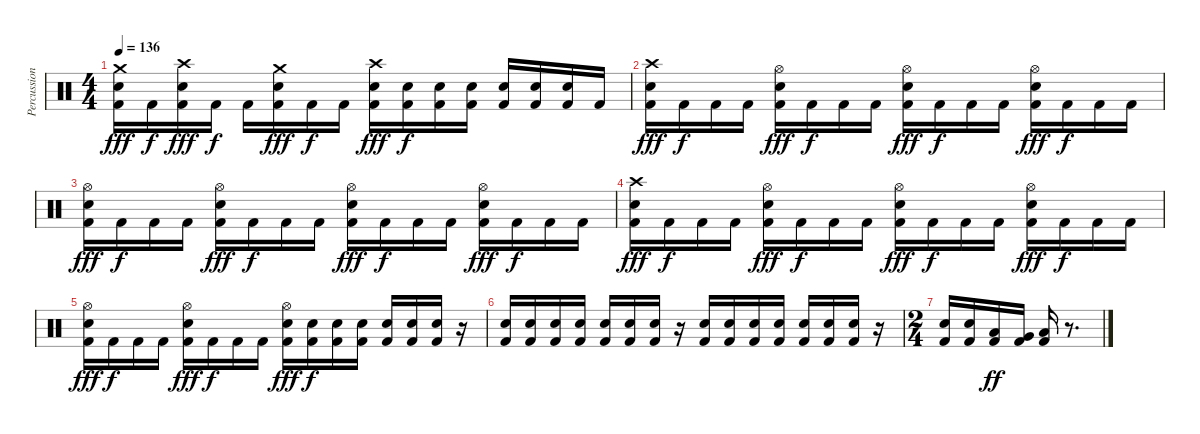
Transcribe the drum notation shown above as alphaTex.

\track ("Percussions" "Percussion") {instrument percussion}
\staff {score}
\articulation defaults
\ts (4 4)
\tempo 136
\clef neutral
\ks c
("Crash medium (hit)" "Electric Snare (hit)" "Kick (hit) 2").16{dy fff} "Kick (hit) 2".16{dy f} ("Crash high (hit)" "Electric Snare (hit)" "Kick (hit) 2").16{dy fff} "Kick (hit) 2".16{dy f} "Kick (hit) 2".16 ("Crash medium (hit)" "Electric Snare (hit)" "Kick (hit) 2").16{dy fff} "Kick (hit) 2".16{dy f} "Kick (hit) 2".16 ("Crash high (hit)" "Electric Snare (hit)" "Kick (hit) 2").16{dy fff} ("Electric Snare (hit)" "Kick (hit) 2").16{dy f} ("Electric Snare (hit)" "Kick (hit) 2").16 ("Electric Snare (hit)" "Kick (hit) 2").16 ("Electric Snare (hit)" "Kick (hit) 2").16 ("Electric Snare (hit)" "Kick (hit) 2").16 ("Electric Snare (hit)" "Kick (hit) 2").16 "Kick (hit) 2".16 |
("Crash high (hit)" "Electric Snare (hit)" "Kick (hit) 2").16{dy fff} "Kick (hit) 2".16{dy f} "Kick (hit) 2".16 "Kick (hit) 2".16 ("Hi-Hat (open)" "Electric Snare (hit)" "Kick (hit) 2").16{dy fff} "Kick (hit) 2".16{dy f} "Kick (hit) 2".16 "Kick (hit) 2".16 ("Hi-Hat (open)" "Electric Snare (hit)" "Kick (hit) 2").16{dy fff} "Kick (hit) 2".16{dy f} "Kick (hit) 2".16 "Kick (hit) 2".16 ("Hi-Hat (open)" "Electric Snare (hit)" "Kick (hit) 2").16{dy fff} "Kick (hit) 2".16{dy f} "Kick (hit) 2".16 "Kick (hit) 2".16 |
("Hi-Hat (open)" "Electric Snare (hit)" "Kick (hit) 2").16{dy fff} "Kick (hit) 2".16{dy f} "Kick (hit) 2".16 "Kick (hit) 2".16 ("Hi-Hat (open)" "Electric Snare (hit)" "Kick (hit) 2").16{dy fff} "Kick (hit) 2".16{dy f} "Kick (hit) 2".16 "Kick (hit) 2".16 ("Hi-Hat (open)" "Electric Snare (hit)" "Kick (hit) 2").16{dy fff} "Kick (hit) 2".16{dy f} "Kick (hit) 2".16 "Kick (hit) 2".16 ("Hi-Hat (open)" "Electric Snare (hit)" "Kick (hit) 2").16{dy fff} "Kick (hit) 2".16{dy f} "Kick (hit) 2".16 "Kick (hit) 2".16 |
("Crash high (hit)" "Electric Snare (hit)" "Kick (hit) 2").16{dy fff} "Kick (hit) 2".16{dy f} "Kick (hit) 2".16 "Kick (hit) 2".16 ("Hi-Hat (open)" "Electric Snare (hit)" "Kick (hit) 2").16{dy fff} "Kick (hit) 2".16{dy f} "Kick (hit) 2".16 "Kick (hit) 2".16 ("Hi-Hat (open)" "Electric Snare (hit)" "Kick (hit) 2").16{dy fff} "Kick (hit) 2".16{dy f} "Kick (hit) 2".16 "Kick (hit) 2".16 ("Hi-Hat (open)" "Electric Snare (hit)" "Kick (hit) 2").16{dy fff} "Kick (hit) 2".16{dy f} "Kick (hit) 2".16 "Kick (hit) 2".16 |
("Hi-Hat (open)" "Electric Snare (hit)" "Kick (hit) 2").16{dy fff} "Kick (hit) 2".16{dy f} "Kick (hit) 2".16 "Kick (hit) 2".16 ("Hi-Hat (open)" "Electric Snare (hit)" "Kick (hit) 2").16{dy fff} "Kick (hit) 2".16{dy f} "Kick (hit) 2".16 "Kick (hit) 2".16 ("Hi-Hat (open)" "Electric Snare (hit)" "Kick (hit) 2").16{dy fff} ("Electric Snare (hit)" "Kick (hit) 2").16{dy f} ("Electric Snare (hit)" "Kick (hit) 2").16 ("Electric Snare (hit)" "Kick (hit) 2").16 ("Electric Snare (hit)" "Kick (hit) 2").16 ("Electric Snare (hit)" "Kick (hit) 2").16 ("Electric Snare (hit)" "Kick (hit) 2").16 r.16 |
("Electric Snare (hit)" "Kick (hit) 2").16 ("Electric Snare (hit)" "Kick (hit) 2").16 ("Electric Snare (hit)" "Kick (hit) 2").16 ("Electric Snare (hit)" "Kick (hit) 2").16 ("Electric Snare (hit)" "Kick (hit) 2").16 ("Electric Snare (hit)" "Kick (hit) 2").16 ("Electric Snare (hit)" "Kick (hit) 2").16 r.16 ("Electric Snare (hit)" "Kick (hit) 2").16 ("Electric Snare (hit)" "Kick (hit) 2").16 ("Electric Snare (hit)" "Kick (hit) 2").16 ("Electric Snare (hit)" "Kick (hit) 2").16 ("Electric Snare (hit)" "Kick (hit) 2").16 ("Electric Snare (hit)" "Kick (hit) 2").16 ("Electric Snare (hit)" "Kick (hit) 2").16 r.16 |
\ts (2 4)
("Electric Snare (hit)" "Kick (hit) 2").16 ("Electric Snare (hit)" "Kick (hit) 2").16 ("Low Tom (hit)" "Kick (hit) 2").16{dy ff} ("Very Low Tom (hit)" "Kick (hit) 2").16 ("Low Floor Tom (hit)" "Kick (hit) 2").16 r.8{d}
